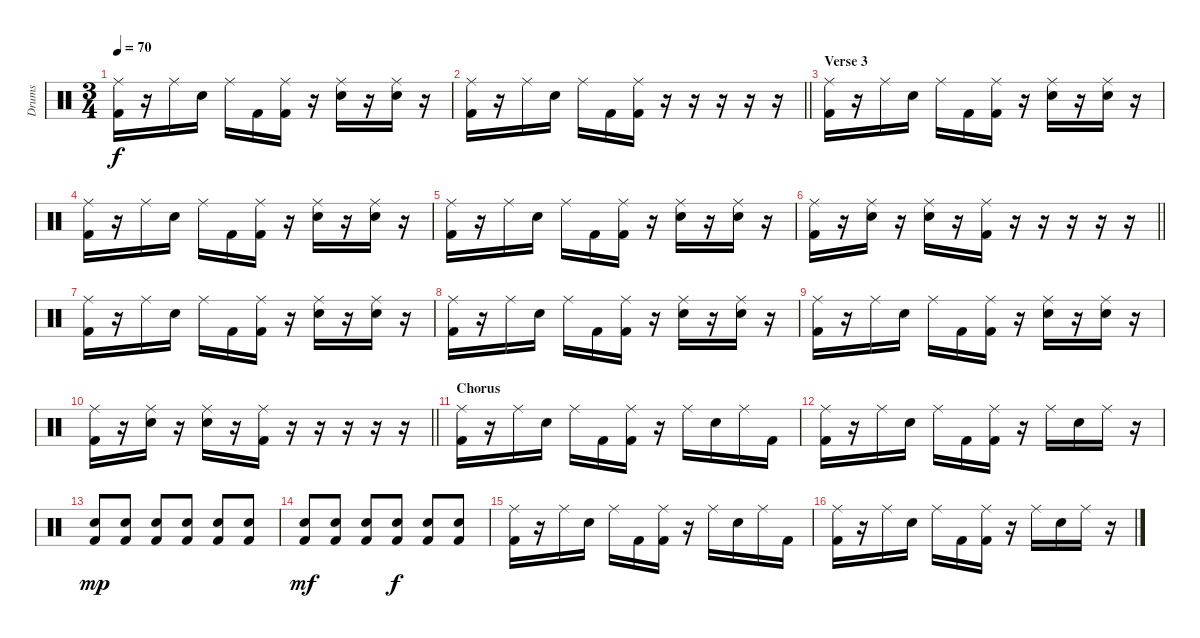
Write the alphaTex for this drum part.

\track ("Drums" "Drums") {instrument percussion}
\staff {score}
\articulation defaults
\ts (3 4)
\tempo 70
\clef neutral
\ks c
("Ride (middle)" "Kick (hit) 2").16{dy f} r.16 "Ride (middle)".16 "Electric Snare (hit)".16 "Ride (middle)".16 "Kick (hit) 2".16 ("Ride (middle)" "Kick (hit) 2").16 r.16 ("Ride (middle)" "Electric Snare (hit)").16 r.16 ("Ride (middle)" "Electric Snare (hit)").16 r.16 |
\barLineRight lightlight
("Ride (middle)" "Kick (hit) 2").16 r.16 "Ride (middle)".16 "Electric Snare (hit)".16 "Ride (middle)".16 "Kick (hit) 2".16 ("Ride (middle)" "Kick (hit) 2").16 r.16 r.16 r.16 r.16 r.16 |
\section ("" "Verse 3")
("Ride (middle)" "Kick (hit) 2").16 r.16 "Ride (middle)".16 "Electric Snare (hit)".16 "Ride (middle)".16 "Kick (hit) 2".16 ("Ride (middle)" "Kick (hit) 2").16 r.16 ("Ride (middle)" "Electric Snare (hit)").16 r.16 ("Ride (middle)" "Electric Snare (hit)").16 r.16 |
("Ride (middle)" "Kick (hit) 2").16 r.16 "Ride (middle)".16 "Electric Snare (hit)".16 "Ride (middle)".16 "Kick (hit) 2".16 ("Ride (middle)" "Kick (hit) 2").16 r.16 ("Ride (middle)" "Electric Snare (hit)").16 r.16 ("Ride (middle)" "Electric Snare (hit)").16 r.16 |
("Ride (middle)" "Kick (hit) 2").16 r.16 "Ride (middle)".16 "Electric Snare (hit)".16 "Ride (middle)".16 "Kick (hit) 2".16 ("Ride (middle)" "Kick (hit) 2").16 r.16 ("Ride (middle)" "Electric Snare (hit)").16 r.16 ("Ride (middle)" "Electric Snare (hit)").16 r.16 |
\barLineRight lightlight
("Ride (middle)" "Kick (hit) 2").16 r.16 ("Ride (middle)" "Electric Snare (hit)").16 r.16 ("Ride (middle)" "Electric Snare (hit)").16 r.16 ("Ride (middle)" "Kick (hit) 2").16 r.16 r.16 r.16 r.16 r.16 |
("Ride (middle)" "Kick (hit) 2").16 r.16 "Ride (middle)".16 "Electric Snare (hit)".16 "Ride (middle)".16 "Kick (hit) 2".16 ("Ride (middle)" "Kick (hit) 2").16 r.16 ("Ride (middle)" "Electric Snare (hit)").16 r.16 ("Ride (middle)" "Electric Snare (hit)").16 r.16 |
("Ride (middle)" "Kick (hit) 2").16 r.16 "Ride (middle)".16 "Electric Snare (hit)".16 "Ride (middle)".16 "Kick (hit) 2".16 ("Ride (middle)" "Kick (hit) 2").16 r.16 ("Ride (middle)" "Electric Snare (hit)").16 r.16 ("Ride (middle)" "Electric Snare (hit)").16 r.16 |
("Ride (middle)" "Kick (hit) 2").16 r.16 "Ride (middle)".16 "Electric Snare (hit)".16 "Ride (middle)".16 "Kick (hit) 2".16 ("Ride (middle)" "Kick (hit) 2").16 r.16 ("Ride (middle)" "Electric Snare (hit)").16 r.16 ("Ride (middle)" "Electric Snare (hit)").16 r.16 |
\barLineRight lightlight
("Ride (middle)" "Kick (hit) 2").16 r.16 ("Ride (middle)" "Electric Snare (hit)").16 r.16 ("Ride (middle)" "Electric Snare (hit)").16 r.16 ("Ride (middle)" "Kick (hit) 2").16 r.16 r.16 r.16 r.16 r.16 |
\section ("" "Chorus")
("Ride (middle)" "Kick (hit) 2").16 r.16 "Ride (middle)".16 "Electric Snare (hit)".16 "Ride (middle)".16 "Kick (hit) 2".16 ("Ride (middle)" "Kick (hit) 2").16 r.16 "Ride (middle)".16 "Electric Snare (hit)".16 "Ride (middle)".16 "Kick (hit) 2".16 |
("Ride (middle)" "Kick (hit) 2").16 r.16 "Ride (middle)".16 "Electric Snare (hit)".16 "Ride (middle)".16 "Kick (hit) 2".16 ("Ride (middle)" "Kick (hit) 2").16 r.16 "Ride (middle)".16 "Electric Snare (hit)".16 "Ride (middle)".16 r.16 |
("Electric Snare (hit)" "Kick (hit) 2").8{dy mp} ("Electric Snare (hit)" "Kick (hit) 2").8 ("Electric Snare (hit)" "Kick (hit) 2").8 ("Electric Snare (hit)" "Kick (hit) 2").8 ("Electric Snare (hit)" "Kick (hit) 2").8 ("Electric Snare (hit)" "Kick (hit) 2").8 |
("Electric Snare (hit)" "Kick (hit) 2").8{dy mf} ("Electric Snare (hit)" "Kick (hit) 2").8 ("Electric Snare (hit)" "Kick (hit) 2").8 ("Electric Snare (hit)" "Kick (hit) 2").8{dy f} ("Electric Snare (hit)" "Kick (hit) 2").8 ("Electric Snare (hit)" "Kick (hit) 2").8 |
("Ride (middle)" "Kick (hit) 2").16 r.16 "Ride (middle)".16 "Electric Snare (hit)".16 "Ride (middle)".16 "Kick (hit) 2".16 ("Ride (middle)" "Kick (hit) 2").16 r.16 "Ride (middle)".16 "Electric Snare (hit)".16 "Ride (middle)".16 "Kick (hit) 2".16 |
("Ride (middle)" "Kick (hit) 2").16 r.16 "Ride (middle)".16 "Electric Snare (hit)".16 "Ride (middle)".16 "Kick (hit) 2".16 ("Ride (middle)" "Kick (hit) 2").16 r.16 "Ride (middle)".16 "Electric Snare (hit)".16 "Ride (middle)".16 r.16
